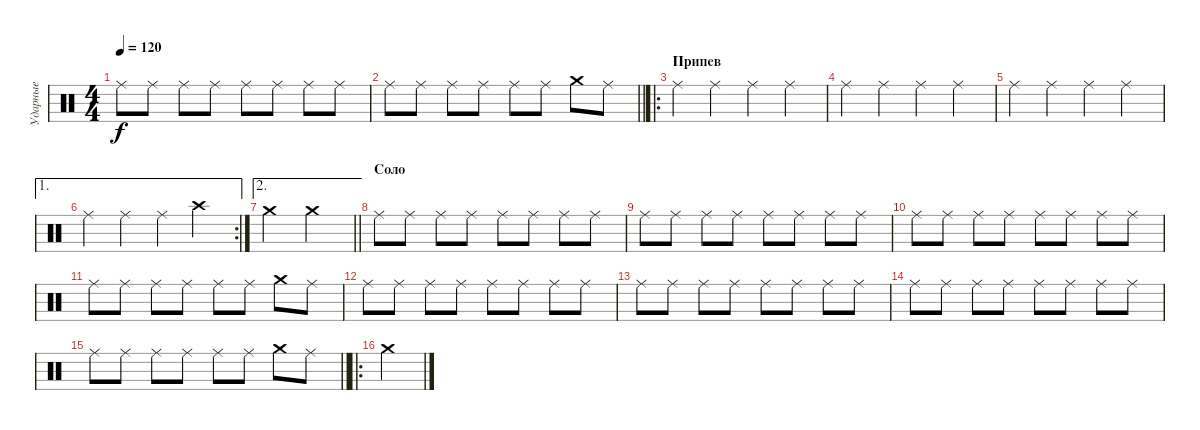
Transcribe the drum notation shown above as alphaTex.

\track ("Ударные" "Ударные") {instrument percussion}
\staff {score}
\articulation defaults
\ts (4 4)
\tempo 120
\clef neutral
\ks c "Ride (middle)".8{dy f} "Ride (middle)".8 "Ride (middle)".8 "Ride (middle)".8 "Ride (middle)".8 "Ride (middle)".8 "Ride (middle)".8 "Ride (middle)".8
|
\barLineRight lightlight "Ride (middle)".8 "Ride (middle)".8 "Ride (middle)".8 "Ride (middle)".8 "Ride (middle)".8 "Ride (middle)".8 "Crash medium (hit)".8 "Ride (middle)".8
|
\ro
\section ("" "Припев")
"Ride (middle)".4 "Ride (middle)".4 "Ride (middle)".4 "Ride (middle)".4 |
"Ride (middle)".4 "Ride (middle)".4 "Ride (middle)".4 "Ride (middle)".4 |
"Ride (middle)".4 "Ride (middle)".4 "Ride (middle)".4 "Ride (middle)".4 |
\ae 1
\rc 2 "Ride (middle)".4 "Ride (middle)".4 "Ride (middle)".4 "Crash high (hit)".4
|
\ae 2
\barLineRight lightlight "Crash medium (hit)".2 "Crash medium (hit)".2
|
\section ("" "Соло")
"Ride (middle)".8 "Ride (middle)".8 "Ride (middle)".8 "Ride (middle)".8 "Ride (middle)".8 "Ride (middle)".8 "Ride (middle)".8 "Ride (middle)".8 |
"Ride (middle)".8 "Ride (middle)".8 "Ride (middle)".8 "Ride (middle)".8 "Ride (middle)".8 "Ride (middle)".8 "Ride (middle)".8 "Ride (middle)".8 |
"Ride (middle)".8 "Ride (middle)".8 "Ride (middle)".8 "Ride (middle)".8 "Ride (middle)".8 "Ride (middle)".8 "Ride (middle)".8 "Ride (middle)".8 |
"Ride (middle)".8 "Ride (middle)".8 "Ride (middle)".8 "Ride (middle)".8 "Ride (middle)".8 "Ride (middle)".8 "Crash medium (hit)".8 "Ride (middle)".8 |
"Ride (middle)".8 "Ride (middle)".8 "Ride (middle)".8 "Ride (middle)".8 "Ride (middle)".8 "Ride (middle)".8 "Ride (middle)".8 "Ride (middle)".8 |
"Ride (middle)".8 "Ride (middle)".8 "Ride (middle)".8 "Ride (middle)".8 "Ride (middle)".8 "Ride (middle)".8 "Ride (middle)".8 "Ride (middle)".8 |
"Ride (middle)".8 "Ride (middle)".8 "Ride (middle)".8 "Ride (middle)".8 "Ride (middle)".8 "Ride (middle)".8 "Ride (middle)".8 "Ride (middle)".8 |
\barLineRight lightlight "Ride (middle)".8 "Ride (middle)".8 "Ride (middle)".8 "Ride (middle)".8 "Ride (middle)".8 "Ride (middle)".8 "Crash medium (hit)".8 "Ride (middle)".8
|
\ro "Crash medium (hit)".4
